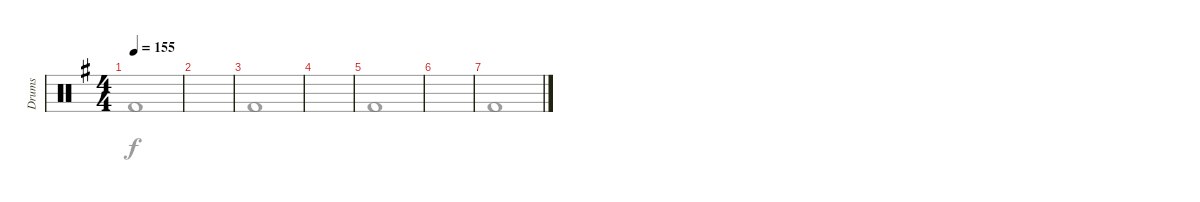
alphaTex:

\track ("Drums" "Drums") {instrument percussion}
\staff {score}
\articulation defaults
\voice
\ts (4 4)
\tempo 155
\clef neutral
\ks g
|
|
|
|
|
|
|
\voice
\clef neutral
\ks g "Kick (hit) 2".1{dy f}
|
|
"Kick (hit) 2".1 |
|
"Kick (hit) 2".1 |
|
"Kick (hit) 2".1 |
